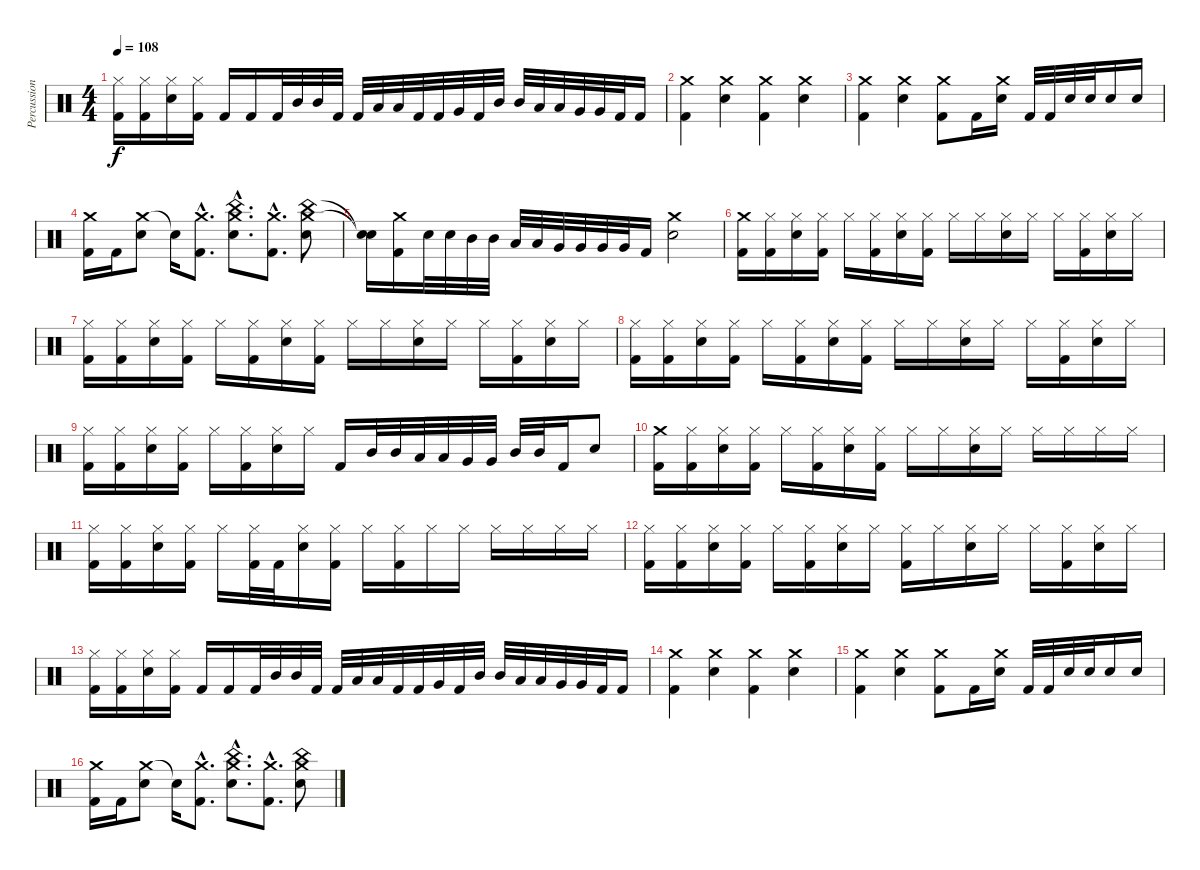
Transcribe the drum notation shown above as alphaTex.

\track ("Percussions" "Percussion") {instrument percussion}
\staff {score}
\articulation defaults
\ts (4 4)
\tempo 108
\clef neutral
\ks c
("Hi-Hat (closed)" "Kick (hit) 2").16{dy f} ("Hi-Hat (closed)" "Kick (hit) 2").16 ("Hi-Hat (closed)" "Electric Snare (hit)").16 ("Hi-Hat (closed)" "Kick (hit) 2").16 "Kick (hit) 2".16 "Kick (hit) 2".16 "Kick (hit) 2".32 "Mid Tom (hit)".32 "Mid Tom (hit)".32 "Kick (hit) 2".32 "Kick (hit) 2".32 "Low Tom (hit)".32 "Low Tom (hit)".32 "Kick (hit) 2".32 "Kick (hit) 2".32 "Very Low Tom (hit)".32 "Kick (hit) 2".32 "Mid Tom (hit)".32 "Mid Tom (hit)".32 "Low Tom (hit)".32 "Low Tom (hit)".32 "Very Low Tom (hit)".32 "Very Low Tom (hit)".32 "Kick (hit) 2".32 "Kick (hit) 2".16 |
("Crash medium (hit)" "Kick (hit) 2").4 ("Crash medium (hit)" "Electric Snare (hit)").4 ("Crash medium (hit)" "Kick (hit) 2").4 ("Crash medium (hit)" "Electric Snare (hit)").4 |
("Crash medium (hit)" "Kick (hit) 2").4 ("Crash medium (hit)" "Electric Snare (hit)").4 ("Crash medium (hit)" "Kick (hit) 2").8 "Kick (hit) 2".16 ("Crash medium (hit)" "Electric Snare (hit)").16 "Kick (hit) 2".32 "Kick (hit) 2".32 "Electric Snare (hit)".32 "Electric Snare (hit)".32 "Electric Snare (hit)".16 "Electric Snare (hit)".16 |
("Crash medium (hit)" "Kick (hit) 2").16 "Kick (hit) 2".16 ("Crash medium (hit)" "Electric Snare (hit)").8 "Snare (hit)"{t}.16 ("Crash medium (hit)"{hac} "Kick (hit) 2"{hac}).8{d} ("Crash medium (hit)"{hac} "China (hit)"{hac} "Electric Snare (hit)"{hac}).8{d} ("Crash medium (hit)"{hac} "Kick (hit) 2"{hac}).8{d} ("Crash medium (hit)" "China (hit)" "Electric Snare (hit)").8 |
("Snare (hit)"{t} "Snare (hit)"{t}).16 ("Crash medium (hit)" "Kick (hit) 2").16 "Electric Snare (hit)".32 "Electric Snare (hit)".32 "Mid Tom (hit)".32 "Mid Tom (hit)".32 "Low Tom (hit)".32 "Low Tom (hit)".32 "Very Low Tom (hit)".32 "Very Low Tom (hit)".32 "Very Low Tom (hit)".32 "Very Low Tom (hit)".32 "Kick (hit) 2".16 ("Crash medium (hit)" "Electric Snare (hit)").2 |
("Crash medium (hit)" "Kick (hit) 2").16 ("Hi-Hat (closed)" "Kick (hit) 2").16 ("Hi-Hat (closed)" "Electric Snare (hit)").16 ("Hi-Hat (closed)" "Kick (hit) 2").16 "Hi-Hat (closed)".16 ("Hi-Hat (closed)" "Kick (hit) 2").16 ("Hi-Hat (closed)" "Electric Snare (hit)").16 ("Hi-Hat (closed)" "Kick (hit) 2").16 "Hi-Hat (closed)".16 "Hi-Hat (closed)".16 ("Hi-Hat (closed)" "Electric Snare (hit)").16 "Hi-Hat (closed)".16 "Hi-Hat (closed)".16 ("Hi-Hat (closed)" "Kick (hit) 2").16 ("Hi-Hat (closed)" "Electric Snare (hit)").16 "Hi-Hat (closed)".16 |
("Hi-Hat (closed)" "Kick (hit) 2").16 ("Hi-Hat (closed)" "Kick (hit) 2").16 ("Hi-Hat (closed)" "Electric Snare (hit)").16 ("Hi-Hat (closed)" "Kick (hit) 2").16 "Hi-Hat (closed)".16 ("Hi-Hat (closed)" "Kick (hit) 2").16 ("Hi-Hat (closed)" "Electric Snare (hit)").16 ("Hi-Hat (closed)" "Kick (hit) 2").16 "Hi-Hat (closed)".16 "Hi-Hat (closed)".16 ("Hi-Hat (closed)" "Electric Snare (hit)").16 "Hi-Hat (closed)".16 "Hi-Hat (closed)".16 ("Hi-Hat (closed)" "Kick (hit) 2").16 ("Hi-Hat (closed)" "Electric Snare (hit)").16 "Hi-Hat (closed)".16 |
("Hi-Hat (closed)" "Kick (hit) 2").16 ("Hi-Hat (closed)" "Kick (hit) 2").16 ("Hi-Hat (closed)" "Electric Snare (hit)").16 ("Hi-Hat (closed)" "Kick (hit) 2").16 "Hi-Hat (closed)".16 ("Hi-Hat (closed)" "Kick (hit) 2").16 ("Hi-Hat (closed)" "Electric Snare (hit)").16 ("Hi-Hat (closed)" "Kick (hit) 2").16 "Hi-Hat (closed)".16 "Hi-Hat (closed)".16 ("Hi-Hat (closed)" "Electric Snare (hit)").16 "Hi-Hat (closed)".16 "Hi-Hat (closed)".16 ("Hi-Hat (closed)" "Kick (hit) 2").16 ("Hi-Hat (closed)" "Electric Snare (hit)").16 "Hi-Hat (closed)".16 |
("Hi-Hat (closed)" "Kick (hit) 2").16 ("Hi-Hat (closed)" "Kick (hit) 2").16 ("Hi-Hat (closed)" "Electric Snare (hit)").16 ("Hi-Hat (closed)" "Kick (hit) 2").16 "Hi-Hat (closed)".16 ("Hi-Hat (closed)" "Kick (hit) 2").16 ("Hi-Hat (closed)" "Electric Snare (hit)").16 "Hi-Hat (closed)".16 "Kick (hit) 2".16 "Mid Tom (hit)".32 "Mid Tom (hit)".32 "Low Tom (hit)".32 "Low Tom (hit)".32 "Very Low Tom (hit)".32 "Very Low Tom (hit)".32 "Mid Tom (hit)".32 "Mid Tom (hit)".32 "Kick (hit) 2".16 "Electric Snare (hit)".8 |
("Crash medium (hit)" "Kick (hit) 2").16 ("Hi-Hat (closed)" "Kick (hit) 2").16 ("Hi-Hat (closed)" "Electric Snare (hit)").16 ("Hi-Hat (closed)" "Kick (hit) 2").16 "Hi-Hat (closed)".16 ("Hi-Hat (closed)" "Kick (hit) 2").16 ("Hi-Hat (closed)" "Electric Snare (hit)").16 ("Hi-Hat (closed)" "Kick (hit) 2").16 "Hi-Hat (closed)".16 "Hi-Hat (closed)".16 ("Hi-Hat (closed)" "Electric Snare (hit)").16 "Hi-Hat (closed)".16 "Hi-Hat (closed)".16 "Hi-Hat (closed)".16 "Hi-Hat (closed)".16 "Hi-Hat (closed)".16 |
("Hi-Hat (closed)" "Kick (hit) 2").16 ("Hi-Hat (closed)" "Kick (hit) 2").16 ("Hi-Hat (closed)" "Electric Snare (hit)").16 ("Hi-Hat (closed)" "Kick (hit) 2").16 "Hi-Hat (closed)".16 ("Hi-Hat (closed)" "Kick (hit) 2").32 "Kick (hit) 2".32 ("Hi-Hat (closed)" "Electric Snare (hit)").16 ("Hi-Hat (closed)" "Kick (hit) 2").16 "Hi-Hat (closed)".16 ("Hi-Hat (closed)" "Kick (hit) 2").16 "Hi-Hat (closed)".16 "Hi-Hat (closed)".16 "Hi-Hat (closed)".16 "Hi-Hat (closed)".16 "Hi-Hat (closed)".16 "Hi-Hat (closed)".16 |
("Hi-Hat (closed)" "Kick (hit) 2").16 ("Hi-Hat (closed)" "Kick (hit) 2").16 ("Hi-Hat (closed)" "Electric Snare (hit)").16 ("Hi-Hat (closed)" "Kick (hit) 2").16 "Hi-Hat (closed)".16 ("Hi-Hat (closed)" "Kick (hit) 2").16 ("Hi-Hat (closed)" "Electric Snare (hit)").16 "Hi-Hat (closed)".16 ("Hi-Hat (closed)" "Kick (hit) 2").16 "Hi-Hat (closed)".16 ("Hi-Hat (closed)" "Electric Snare (hit)").16 "Hi-Hat (closed)".16 "Hi-Hat (closed)".16 ("Hi-Hat (closed)" "Kick (hit) 2").16 ("Hi-Hat (closed)" "Electric Snare (hit)").16 "Hi-Hat (closed)".16 |
("Hi-Hat (closed)" "Kick (hit) 2").16 ("Hi-Hat (closed)" "Kick (hit) 2").16 ("Hi-Hat (closed)" "Electric Snare (hit)").16 ("Hi-Hat (closed)" "Kick (hit) 2").16 "Kick (hit) 2".16 "Kick (hit) 2".16 "Kick (hit) 2".32 "Mid Tom (hit)".32 "Mid Tom (hit)".32 "Kick (hit) 2".32 "Kick (hit) 2".32 "Low Tom (hit)".32 "Low Tom (hit)".32 "Kick (hit) 2".32 "Kick (hit) 2".32 "Very Low Tom (hit)".32 "Kick (hit) 2".32 "Mid Tom (hit)".32 "Mid Tom (hit)".32 "Low Tom (hit)".32 "Low Tom (hit)".32 "Very Low Tom (hit)".32 "Very Low Tom (hit)".32 "Kick (hit) 2".32 "Kick (hit) 2".16 |
("Crash medium (hit)" "Kick (hit) 2").4 ("Crash medium (hit)" "Electric Snare (hit)").4 ("Crash medium (hit)" "Kick (hit) 2").4 ("Crash medium (hit)" "Electric Snare (hit)").4 |
("Crash medium (hit)" "Kick (hit) 2").4 ("Crash medium (hit)" "Electric Snare (hit)").4 ("Crash medium (hit)" "Kick (hit) 2").8 "Kick (hit) 2".16 ("Crash medium (hit)" "Electric Snare (hit)").16 "Kick (hit) 2".32 "Kick (hit) 2".32 "Electric Snare (hit)".32 "Electric Snare (hit)".32 "Electric Snare (hit)".16 "Electric Snare (hit)".16 |
("Crash medium (hit)" "Kick (hit) 2").16 "Kick (hit) 2".16 ("Crash medium (hit)" "Electric Snare (hit)").8 "Snare (hit)"{t}.16 ("Crash medium (hit)"{hac} "Kick (hit) 2"{hac}).8{d} ("Crash medium (hit)"{hac} "China (hit)"{hac} "Electric Snare (hit)"{hac}).8{d} ("Crash medium (hit)"{hac} "Kick (hit) 2"{hac}).8{d} ("Crash medium (hit)" "China (hit)" "Electric Snare (hit)").8
